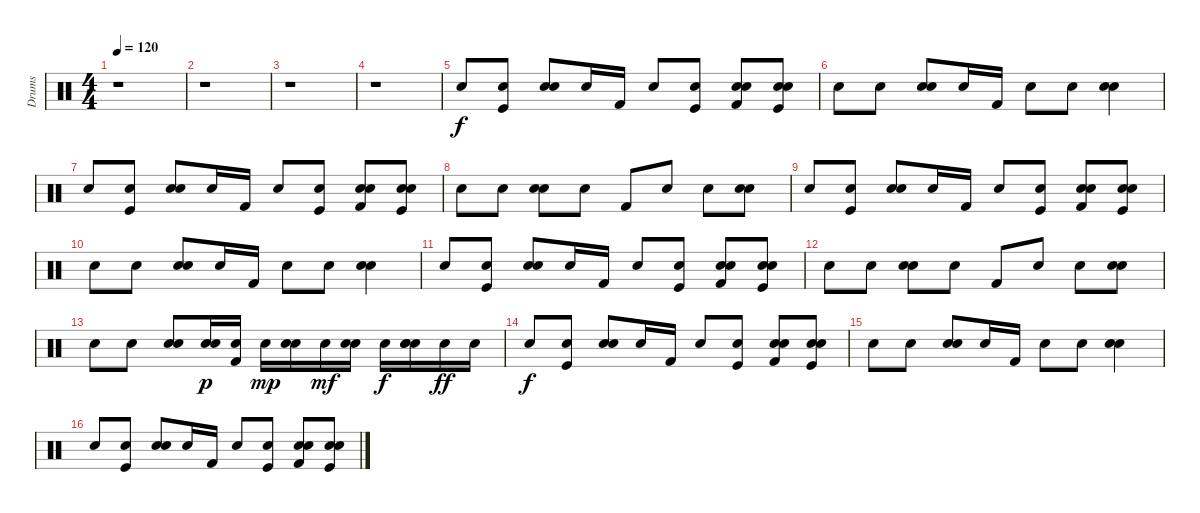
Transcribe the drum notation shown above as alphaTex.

\track ("Drums" "Drums") {instrument percussion}
\staff {score}
\articulation defaults
\ts (4 4)
\tempo 120
\clef neutral
\ks c
r.1{dy f} |
r.1 |
r.1 |
r.1 |
"Snare (hit) 2".8 ("Snare (hit) 2" "Kick (hit)").8 ("Electric Snare (hit)" "Snare (hit) 2").8 "Snare (hit) 2".16 "Kick (hit) 2".16 "Snare (hit) 2".8 ("Snare (hit) 2" "Kick (hit)").8 ("Electric Snare (hit)" "Snare (hit) 2" "Kick (hit) 2").8 ("Electric Snare (hit)" "Snare (hit) 2" "Kick (hit)").8 |
"Snare (hit) 2".8 "Snare (hit) 2".8 ("Electric Snare (hit)" "Snare (hit) 2").8 "Snare (hit) 2".16 "Kick (hit) 2".16 "Snare (hit) 2".8 "Snare (hit) 2".8 ("Electric Snare (hit)" "Snare (hit) 2").4 |
"Snare (hit) 2".8 ("Snare (hit) 2" "Kick (hit)").8 ("Electric Snare (hit)" "Snare (hit) 2").8 "Snare (hit) 2".16 "Kick (hit) 2".16 "Snare (hit) 2".8 ("Snare (hit) 2" "Kick (hit)").8 ("Electric Snare (hit)" "Snare (hit) 2" "Kick (hit) 2").8 ("Electric Snare (hit)" "Snare (hit) 2" "Kick (hit)").8 |
"Snare (hit) 2".8 "Snare (hit) 2".8 ("Electric Snare (hit)" "Snare (hit) 2").8 "Snare (hit) 2".8 "Kick (hit) 2".8 "Snare (hit) 2".8 "Snare (hit) 2".8 ("Electric Snare (hit)" "Snare (hit) 2").8 |
"Snare (hit) 2".8 ("Snare (hit) 2" "Kick (hit)").8 ("Electric Snare (hit)" "Snare (hit) 2").8 "Snare (hit) 2".16 "Kick (hit) 2".16 "Snare (hit) 2".8 ("Snare (hit) 2" "Kick (hit)").8 ("Electric Snare (hit)" "Snare (hit) 2" "Kick (hit) 2").8 ("Electric Snare (hit)" "Snare (hit) 2" "Kick (hit)").8 |
"Snare (hit) 2".8 "Snare (hit) 2".8 ("Electric Snare (hit)" "Snare (hit) 2").8 "Snare (hit) 2".16 "Kick (hit) 2".16 "Snare (hit) 2".8 "Snare (hit) 2".8 ("Electric Snare (hit)" "Snare (hit) 2").4 |
"Snare (hit) 2".8 ("Snare (hit) 2" "Kick (hit)").8 ("Electric Snare (hit)" "Snare (hit) 2").8 "Snare (hit) 2".16 "Kick (hit) 2".16 "Snare (hit) 2".8 ("Snare (hit) 2" "Kick (hit)").8 ("Electric Snare (hit)" "Snare (hit) 2" "Kick (hit) 2").8 ("Electric Snare (hit)" "Snare (hit) 2" "Kick (hit)").8 |
"Snare (hit) 2".8 "Snare (hit) 2".8 ("Electric Snare (hit)" "Snare (hit) 2").8 "Snare (hit) 2".8 "Kick (hit) 2".8 "Snare (hit) 2".8 "Snare (hit) 2".8 ("Electric Snare (hit)" "Snare (hit) 2").8 |
"Snare (hit) 2".8 "Snare (hit) 2".8 ("Electric Snare (hit)" "Snare (hit) 2").8 ("Electric Snare (hit)" "Snare (hit) 2").16{dy p} ("Electric Snare (hit)" "Kick (hit) 2").16 "Electric Snare (hit)".16{dy mp} ("Electric Snare (hit)" "Snare (hit) 2").16 "Electric Snare (hit)".16{dy mf} ("Electric Snare (hit)" "Snare (hit) 2").16 "Electric Snare (hit)".16{dy f} ("Electric Snare (hit)" "Electric Snare (hit)" "Snare (hit) 2").16 "Electric Snare (hit)".16{dy ff} "Electric Snare (hit)".16 |
"Snare (hit) 2".8{dy f} ("Snare (hit) 2" "Kick (hit)").8 ("Electric Snare (hit)" "Snare (hit) 2").8 "Snare (hit) 2".16 "Kick (hit) 2".16 "Snare (hit) 2".8 ("Snare (hit) 2" "Kick (hit)").8 ("Electric Snare (hit)" "Snare (hit) 2" "Kick (hit) 2").8 ("Electric Snare (hit)" "Snare (hit) 2" "Kick (hit)").8 |
"Snare (hit) 2".8 "Snare (hit) 2".8 ("Electric Snare (hit)" "Snare (hit) 2").8 "Snare (hit) 2".16 "Kick (hit) 2".16 "Snare (hit) 2".8 "Snare (hit) 2".8 ("Electric Snare (hit)" "Snare (hit) 2").4 |
"Snare (hit) 2".8 ("Snare (hit) 2" "Kick (hit)").8 ("Electric Snare (hit)" "Snare (hit) 2").8 "Snare (hit) 2".16 "Kick (hit) 2".16 "Snare (hit) 2".8 ("Snare (hit) 2" "Kick (hit)").8 ("Electric Snare (hit)" "Snare (hit) 2" "Kick (hit) 2").8 ("Electric Snare (hit)" "Snare (hit) 2" "Kick (hit)").8
